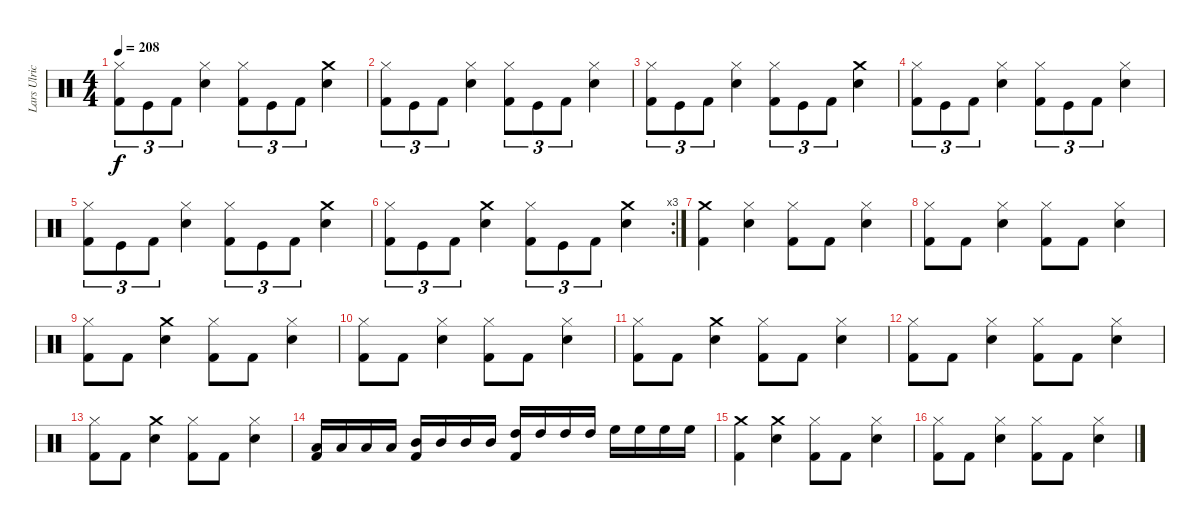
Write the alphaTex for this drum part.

\track ("Lars Ulrich (Drums)" "Lars Ulric") {instrument percussion}
\staff {score}
\articulation defaults
\ts (4 4)
\tempo 208
\clef neutral
\ks c
("Hi-Hat (closed)" "Kick (hit) 2").8{tu (3 2) dy f} "Kick (hit)".8{tu (3 2)} "Kick (hit) 2".8{tu (3 2)} ("Snare (hit) 2" "Hi-Hat (closed)").4 ("Hi-Hat (closed)" "Kick (hit) 2").8{tu (3 2)} "Kick (hit)".8{tu (3 2)} "Kick (hit) 2".8{tu (3 2)} ("Crash medium (hit)" "Snare (hit) 2").4 |
("Hi-Hat (closed)" "Kick (hit) 2").8{tu (3 2)} "Kick (hit)".8{tu (3 2)} "Kick (hit) 2".8{tu (3 2)} ("Snare (hit) 2" "Hi-Hat (closed)").4 ("Hi-Hat (closed)" "Kick (hit) 2").8{tu (3 2)} "Kick (hit)".8{tu (3 2)} "Kick (hit) 2".8{tu (3 2)} ("Hi-Hat (closed)" "Snare (hit) 2").4 |
("Hi-Hat (closed)" "Kick (hit) 2").8{tu (3 2)} "Kick (hit)".8{tu (3 2)} "Kick (hit) 2".8{tu (3 2)} ("Snare (hit) 2" "Hi-Hat (closed)").4 ("Hi-Hat (closed)" "Kick (hit) 2").8{tu (3 2)} "Kick (hit)".8{tu (3 2)} "Kick (hit) 2".8{tu (3 2)} ("Crash medium (hit)" "Snare (hit) 2").4 |
("Hi-Hat (closed)" "Kick (hit) 2").8{tu (3 2)} "Kick (hit)".8{tu (3 2)} "Kick (hit) 2".8{tu (3 2)} ("Snare (hit) 2" "Hi-Hat (closed)").4 ("Hi-Hat (closed)" "Kick (hit) 2").8{tu (3 2)} "Kick (hit)".8{tu (3 2)} "Kick (hit) 2".8{tu (3 2)} ("Hi-Hat (closed)" "Snare (hit) 2").4 |
("Hi-Hat (closed)" "Kick (hit) 2").8{tu (3 2)} "Kick (hit)".8{tu (3 2)} "Kick (hit) 2".8{tu (3 2)} ("Snare (hit) 2" "Hi-Hat (closed)").4 ("Hi-Hat (closed)" "Kick (hit) 2").8{tu (3 2)} "Kick (hit)".8{tu (3 2)} "Kick (hit) 2".8{tu (3 2)} ("Crash medium (hit)" "Snare (hit) 2").4 |
\rc 3
("Hi-Hat (closed)" "Kick (hit) 2").8{tu (3 2)} "Kick (hit)".8{tu (3 2)} "Kick (hit) 2".8{tu (3 2)} ("Crash medium (hit)" "Snare (hit) 2").4 ("Hi-Hat (closed)" "Kick (hit) 2").8{tu (3 2)} "Kick (hit)".8{tu (3 2)} "Kick (hit) 2".8{tu (3 2)} ("Crash medium (hit)" "Snare (hit) 2").4 |
("Kick (hit) 2" "Crash medium (hit)").4 ("Hi-Hat (closed)" "Snare (hit) 2").4 ("Hi-Hat (closed)" "Kick (hit) 2").8 "Kick (hit) 2".8 ("Snare (hit) 2" "Hi-Hat (closed)").4 |
("Kick (hit) 2" "Hi-Hat (closed)").8 "Kick (hit) 2".8 ("Snare (hit) 2" "Hi-Hat (closed)").4 ("Kick (hit) 2" "Hi-Hat (closed)").8 "Kick (hit) 2".8 ("Snare (hit) 2" "Hi-Hat (closed)").4 |
("Kick (hit) 2" "Hi-Hat (closed)").8 "Kick (hit) 2".8 ("Crash medium (hit)" "Snare (hit) 2").4 ("Kick (hit) 2" "Hi-Hat (closed)").8 "Kick (hit) 2".8 ("Snare (hit) 2" "Hi-Hat (closed)").4 |
("Kick (hit) 2" "Hi-Hat (closed)").8 "Kick (hit) 2".8 ("Snare (hit) 2" "Hi-Hat (closed)").4 ("Kick (hit) 2" "Hi-Hat (closed)").8 "Kick (hit) 2".8 ("Snare (hit) 2" "Hi-Hat (closed)").4 |
("Kick (hit) 2" "Hi-Hat (closed)").8 "Kick (hit) 2".8 ("Crash medium (hit)" "Snare (hit) 2").4 ("Kick (hit) 2" "Hi-Hat (closed)").8 "Kick (hit) 2".8 ("Snare (hit) 2" "Hi-Hat (closed)").4 |
("Kick (hit) 2" "Hi-Hat (closed)").8 "Kick (hit) 2".8 ("Snare (hit) 2" "Hi-Hat (closed)").4 ("Kick (hit) 2" "Hi-Hat (closed)").8 "Kick (hit) 2".8 ("Snare (hit) 2" "Hi-Hat (closed)").4 |
("Kick (hit) 2" "Hi-Hat (closed)").8 "Kick (hit) 2".8 ("Crash medium (hit)" "Snare (hit) 2").4 ("Kick (hit) 2" "Hi-Hat (closed)").8 "Kick (hit) 2".8 ("Snare (hit) 2" "Hi-Hat (closed)").4 |
("Low Tom (hit)" "Kick (hit) 2").16 "Low Tom (hit)".16 "Low Tom (hit)".16 "Low Tom (hit)".16 ("Mid Tom (hit)" "Kick (hit) 2").16 "Mid Tom (hit)".16 "Mid Tom (hit)".16 "Mid Tom (hit)".16 ("High Tom (hit)" "Kick (hit) 2").16 "High Tom (hit)".16 "High Tom (hit)".16 "High Tom (hit)".16 "High Floor Tom (hit)".16 "High Floor Tom (hit)".16 "High Floor Tom (hit)".16 "High Floor Tom (hit)".16 |
("Kick (hit) 2" "Crash medium (hit)").4 ("Snare (hit) 2" "Crash medium (hit)").4 ("Hi-Hat (closed)" "Kick (hit) 2").8 "Kick (hit) 2".8 ("Hi-Hat (closed)" "Snare (hit) 2").4 |
("Kick (hit) 2" "Hi-Hat (closed)").8 "Kick (hit) 2".8 ("Snare (hit) 2" "Hi-Hat (closed)").4 ("Kick (hit) 2" "Hi-Hat (closed)").8 "Kick (hit) 2".8 ("Snare (hit) 2" "Hi-Hat (closed)").4
